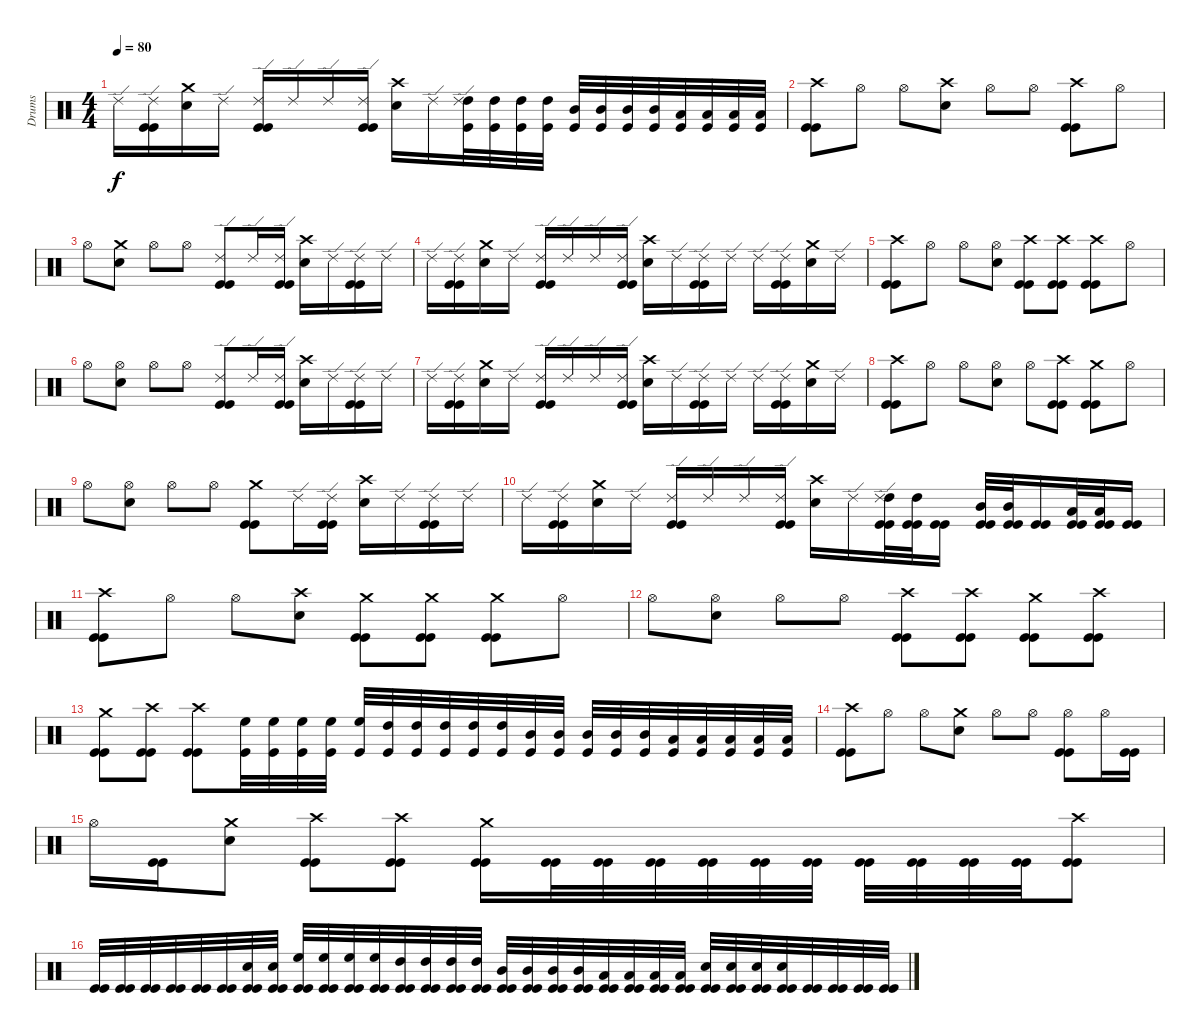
\track ("Drums" "Drums") {instrument percussion}
\staff {score}
\articulation defaults
\ts (4 4)
\tempo 80
\clef neutral
\ks c "Ride (edge) 2".16{dy f}
("Kick (hit)" "Kick (hit)" "Ride (edge) 2").16 ("Electric Snare (hit)" "Crash medium (hit)").16 "Ride (edge) 2".16 ("Kick (hit)" "Kick (hit)" "Ride (edge) 2").16 "Ride (edge) 2".16 "Ride (edge) 2".16 ("Kick (hit)" "Kick (hit)" "Ride (edge) 2").16 ("Electric Snare (hit)" "Crash high (hit)").16 "Ride (edge) 2".16 ("Kick (hit)" "High Tom (hit)" "Ride (edge) 2").32 ("Kick (hit)" "High Tom (hit)").32 ("Kick (hit)" "High Tom (hit)").32 ("Kick (hit)" "High Tom (hit)").32 ("Kick (hit)" "Mid Tom (hit)").32 ("Kick (hit)" "Mid Tom (hit)").32 ("Kick (hit)" "Mid Tom (hit)").32 ("Kick (hit)" "Mid Tom (hit)").32 ("Kick (hit)" "Low Tom (hit)").32 ("Kick (hit)" "Low Tom (hit)").32 ("Kick (hit)" "Low Tom (hit)").32 ("Kick (hit)" "Low Tom (hit)").32 |
("Kick (hit)" "Kick (hit)" "Crash high (hit)").8 "Hi-Hat (open)".8 "Hi-Hat (open)".8 ("Electric Snare (hit)" "Crash high (hit)").8 "Hi-Hat (open)".8 "Hi-Hat (open)".8 ("Kick (hit)" "Kick (hit)" "Crash high (hit)").8 "Hi-Hat (open)".8 |
"Hi-Hat (open)".8 ("Electric Snare (hit)" "Crash medium (hit)").8 "Hi-Hat (open)".8 "Hi-Hat (open)".8 ("Kick (hit)" "Kick (hit)" "Ride (edge) 2").8 "Ride (edge) 2".16 ("Kick (hit)" "Kick (hit)" "Ride (edge) 2").16 ("Electric Snare (hit)" "Crash high (hit)").16 "Ride (edge) 2".16 ("Kick (hit)" "Kick (hit)" "Ride (edge) 2").16 "Ride (edge) 2".16 |
"Ride (edge) 2".16 ("Kick (hit)" "Kick (hit)" "Ride (edge) 2").16 ("Electric Snare (hit)" "Crash medium (hit)").16 "Ride (edge) 2".16 ("Kick (hit)" "Kick (hit)" "Ride (edge) 2").16 "Ride (edge) 2".16 "Ride (edge) 2".16 ("Kick (hit)" "Kick (hit)" "Ride (edge) 2").16 ("Electric Snare (hit)" "Crash high (hit)").16 "Ride (edge) 2".16 ("Kick (hit)" "Kick (hit)" "Ride (edge) 2").16 "Ride (edge) 2".16 "Ride (edge) 2".16 ("Kick (hit)" "Kick (hit)" "Ride (edge) 2").16 ("Electric Snare (hit)" "Crash medium (hit)").16 "Ride (edge) 2".16 |
("Kick (hit)" "Kick (hit)" "Crash high (hit)").8 "Hi-Hat (open)".8 "Hi-Hat (open)".8 ("Electric Snare (hit)" "Hi-Hat (open)").8 ("Kick (hit)" "Kick (hit)" "Crash high (hit)").8 ("Kick (hit)" "Kick (hit)" "Crash high (hit)").8 ("Kick (hit)" "Kick (hit)" "Crash high (hit)").8 "Hi-Hat (open)".8 |
"Hi-Hat (open)".8 ("Electric Snare (hit)" "Hi-Hat (open)").8 "Hi-Hat (open)".8 "Hi-Hat (open)".8 ("Kick (hit)" "Kick (hit)" "Ride (edge) 2").8 "Ride (edge) 2".16 ("Kick (hit)" "Kick (hit)" "Ride (edge) 2").16 ("Electric Snare (hit)" "Crash high (hit)").16 "Ride (edge) 2".16 ("Kick (hit)" "Kick (hit)" "Ride (edge) 2").16 "Ride (edge) 2".16 |
"Ride (edge) 2".16 ("Kick (hit)" "Kick (hit)" "Ride (edge) 2").16 ("Electric Snare (hit)" "Crash medium (hit)").16 "Ride (edge) 2".16 ("Kick (hit)" "Kick (hit)" "Ride (edge) 2").16 "Ride (edge) 2".16 "Ride (edge) 2".16 ("Kick (hit)" "Kick (hit)" "Ride (edge) 2").16 ("Electric Snare (hit)" "Crash high (hit)").16 "Ride (edge) 2".16 ("Kick (hit)" "Kick (hit)" "Ride (edge) 2").16 "Ride (edge) 2".16 "Ride (edge) 2".16 ("Kick (hit)" "Kick (hit)" "Ride (edge) 2").16 ("Electric Snare (hit)" "Crash medium (hit)").16 "Ride (edge) 2".16 |
("Kick (hit)" "Kick (hit)" "Crash high (hit)").8 "Hi-Hat (open)".8 "Hi-Hat (open)".8 ("Electric Snare (hit)" "Hi-Hat (open)").8 "Hi-Hat (open)".8 ("Kick (hit)" "Kick (hit)" "Crash high (hit)").8 ("Kick (hit)" "Kick (hit)" "Crash medium (hit)").8 "Hi-Hat (open)".8 |
"Hi-Hat (open)".8 ("Electric Snare (hit)" "Hi-Hat (open)").8 "Hi-Hat (open)".8 "Hi-Hat (open)".8 ("Kick (hit)" "Kick (hit)" "Crash medium (hit)").8 "Ride (edge) 2".16 ("Kick (hit)" "Kick (hit)" "Ride (edge) 2").16 ("Electric Snare (hit)" "Crash high (hit)").16 "Ride (edge) 2".16 ("Kick (hit)" "Kick (hit)" "Ride (edge) 2").16 "Ride (edge) 2".16 |
"Ride (edge) 2".16 ("Kick (hit)" "Kick (hit)" "Ride (edge) 2").16 ("Electric Snare (hit)" "Crash medium (hit)").16 "Ride (edge) 2".16 ("Kick (hit)" "Kick (hit)" "Ride (edge) 2").16 "Ride (edge) 2".16 "Ride (edge) 2".16 ("Kick (hit)" "Kick (hit)" "Ride (edge) 2").16 ("Electric Snare (hit)" "Crash high (hit)").16 "Ride (edge) 2".16 ("Kick (hit)" "Kick (hit)" "High Tom (hit)" "Ride (edge) 2").32 ("Kick (hit)" "Kick (hit)" "High Tom (hit)").32 ("Kick (hit)" "Kick (hit)").16 ("Kick (hit)" "Kick (hit)" "Mid Tom (hit)").32 ("Kick (hit)" "Kick (hit)" "Mid Tom (hit)").32 ("Kick (hit)" "Kick (hit)").16 ("Kick (hit)" "Kick (hit)" "Low Tom (hit)").32 ("Kick (hit)" "Kick (hit)" "Low Tom (hit)").32 ("Kick (hit)" "Kick (hit)").16 |
("Kick (hit)" "Kick (hit)" "Crash high (hit)").8 "Hi-Hat (open)".8 "Hi-Hat (open)".8 ("Electric Snare (hit)" "Crash high (hit)").8 ("Kick (hit)" "Kick (hit)" "Crash medium (hit)").8 ("Kick (hit)" "Kick (hit)" "Crash medium (hit)").8 ("Kick (hit)" "Kick (hit)" "Crash medium (hit)").8 "Hi-Hat (open)".8 |
"Hi-Hat (open)".8 ("Electric Snare (hit)" "Hi-Hat (open)").8 "Hi-Hat (open)".8 "Hi-Hat (open)".8 ("Kick (hit)" "Kick (hit)" "Crash high (hit)").8 ("Kick (hit)" "Kick (hit)" "Crash high (hit)").8 ("Kick (hit)" "Kick (hit)" "Crash medium (hit)").8 ("Kick (hit)" "Kick (hit)" "Crash high (hit)").8 |
("Kick (hit)" "Kick (hit)" "Crash medium (hit)").8 ("Kick (hit)" "Kick (hit)" "Crash high (hit)").8 ("Kick (hit)" "Kick (hit)" "Crash high (hit)").8 ("Kick (hit)" "High Floor Tom (hit)").32 ("Kick (hit)" "High Floor Tom (hit)").32 ("Kick (hit)" "High Floor Tom (hit)").32 ("Kick (hit)" "High Floor Tom (hit)").32 ("Kick (hit)" "High Floor Tom (hit)").32 ("Kick (hit)" "High Tom (hit)").32 ("Kick (hit)" "High Tom (hit)").32 ("Kick (hit)" "High Tom (hit)").32 ("Kick (hit)" "High Tom (hit)").32 ("Kick (hit)" "High Tom (hit)").32 ("Kick (hit)" "Mid Tom (hit)").32 ("Kick (hit)" "Mid Tom (hit)").32 ("Kick (hit)" "Mid Tom (hit)").32 ("Kick (hit)" "Mid Tom (hit)").32 ("Kick (hit)" "Mid Tom (hit)").32 ("Kick (hit)" "Low Tom (hit)").32 ("Kick (hit)" "Low Tom (hit)").32 ("Kick (hit)" "Low Tom (hit)").32 ("Kick (hit)" "Low Tom (hit)").32 ("Kick (hit)" "Low Tom (hit)").32 |
("Kick (hit)" "Kick (hit)" "Crash high (hit)").8 "Hi-Hat (open)".8 "Hi-Hat (open)".8 ("Electric Snare (hit)" "Crash medium (hit)").8 "Hi-Hat (open)".8 "Hi-Hat (open)".8 ("Kick (hit)" "Kick (hit)" "Hi-Hat (open)").8 "Hi-Hat (open)".16 ("Kick (hit)" "Kick (hit)").16 |
"Hi-Hat (open)".16 ("Kick (hit)" "Kick (hit)").16 ("Electric Snare (hit)" "Crash medium (hit)").8 ("Kick (hit)" "Kick (hit)" "Crash high (hit)").8 ("Kick (hit)" "Kick (hit)" "Crash high (hit)").8 ("Kick (hit)" "Kick (hit)" "Crash medium (hit)").16 ("Kick (hit)" "Kick (hit)").32 ("Kick (hit)" "Kick (hit)").32 ("Kick (hit)" "Kick (hit)").32 ("Kick (hit)" "Kick (hit)").32 ("Kick (hit)" "Kick (hit)").32 ("Kick (hit)" "Kick (hit)").32 ("Kick (hit)" "Kick (hit)").32 ("Kick (hit)" "Kick (hit)").32 ("Kick (hit)" "Kick (hit)").32 ("Kick (hit)" "Kick (hit)").32 ("Kick (hit)" "Kick (hit)" "Crash high (hit)").8 |
("Kick (hit)" "Kick (hit)").32 ("Kick (hit)" "Kick (hit)").32 ("Kick (hit)" "Kick (hit)").32 ("Kick (hit)" "Kick (hit)").32 ("Kick (hit)" "Kick (hit)").32 ("Kick (hit)" "Kick (hit)").32 ("Kick (hit)" "Kick (hit)" "Electric Snare (hit)").32 ("Kick (hit)" "Kick (hit)" "Electric Snare (hit)").32 ("Kick (hit)" "Kick (hit)" "High Floor Tom (hit)").32 ("Kick (hit)" "Kick (hit)" "High Floor Tom (hit)").32 ("Kick (hit)" "Kick (hit)" "High Floor Tom (hit)").32 ("Kick (hit)" "Kick (hit)" "High Floor Tom (hit)").32 ("Kick (hit)" "Kick (hit)" "High Tom (hit)").32 ("Kick (hit)" "Kick (hit)" "High Tom (hit)").32 ("Kick (hit)" "Kick (hit)" "High Tom (hit)").32 ("Kick (hit)" "Kick (hit)" "High Tom (hit)").32 ("Kick (hit)" "Kick (hit)" "Mid Tom (hit)").32 ("Kick (hit)" "Kick (hit)" "Mid Tom (hit)").32 ("Kick (hit)" "Kick (hit)" "Mid Tom (hit)").32 ("Kick (hit)" "Kick (hit)" "Mid Tom (hit)").32 ("Kick (hit)" "Kick (hit)" "Low Tom (hit)").32 ("Kick (hit)" "Kick (hit)" "Low Tom (hit)").32 ("Kick (hit)" "Kick (hit)" "Low Tom (hit)").32 ("Kick (hit)" "Kick (hit)" "Low Tom (hit)").32 ("Kick (hit)" "Kick (hit)" "Electric Snare (hit)").32 ("Kick (hit)" "Kick (hit)" "Electric Snare (hit)").32 ("Kick (hit)" "Kick (hit)" "Electric Snare (hit)").32 ("Kick (hit)" "Kick (hit)" "Electric Snare (hit)").32 ("Kick (hit)" "Kick (hit)").32 ("Kick (hit)" "Kick (hit)").32 ("Kick (hit)" "Kick (hit)").32 ("Kick (hit)" "Kick (hit)").32
